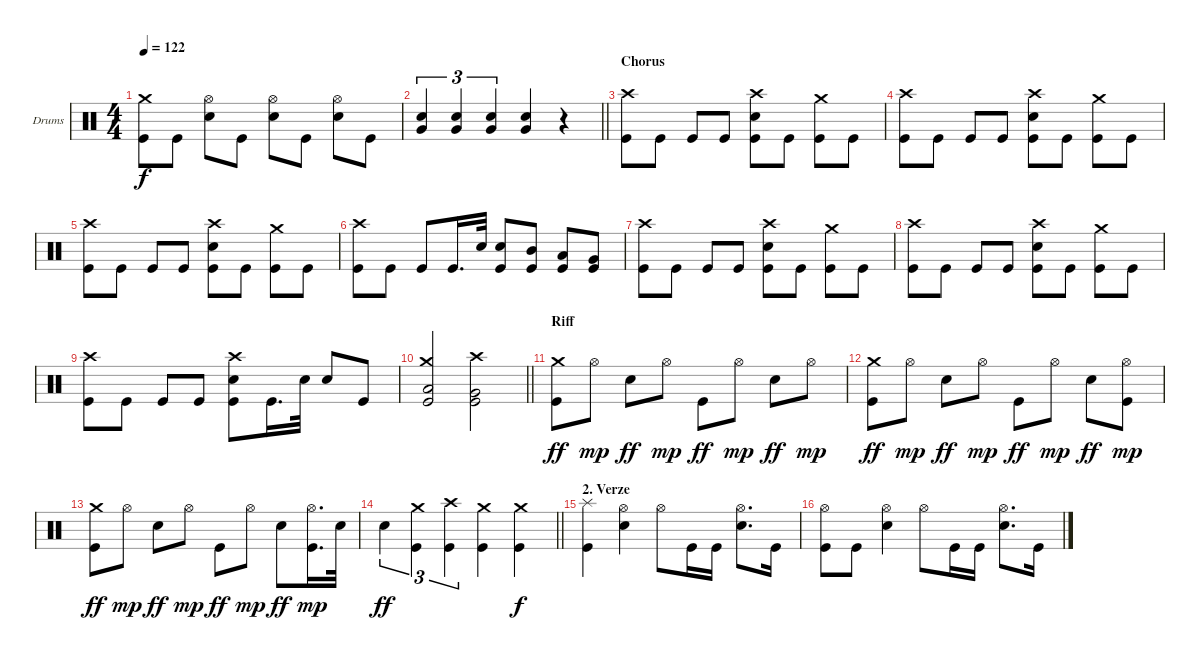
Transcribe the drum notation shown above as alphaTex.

\bracketExtendMode groupsimilarinstruments
\firstSystemTrackNameOrientation horizontal
\otherSystemsTrackNameOrientation horizontal
\track ("Brent Fitz" "Drums") {instrument percussion}
\staff {score}
\articulation defaults
\ts (4 4)
\tempo 122
\clef neutral
\ks c
("Kick (hit)" "Crash medium (hit)").8{dy f} "Kick (hit)".8 ("Snare (hit) 2" "Hi-Hat (open)").8 "Kick (hit)".8 ("Snare (hit) 2" "Hi-Hat (open)").8 "Kick (hit)".8 ("Snare (hit) 2" "Hi-Hat (open)").8 "Kick (hit)".8 |
\barLineRight lightlight
("Snare (hit) 2" "Very Low Tom (hit)").4{tu (3 2)} ("Snare (hit) 2" "Very Low Tom (hit)").4{tu (3 2)} ("Snare (hit) 2" "Very Low Tom (hit)").4{tu (3 2)} ("Snare (hit) 2" "Very Low Tom (hit)").4 r.4 |
\section ("" "Chorus")
("Kick (hit)" "Crash high (hit)").8 "Kick (hit)".8 "Kick (hit)".8 "Kick (hit)".8 ("Snare (hit) 2" "Crash high (hit)" "Kick (hit)").8 "Kick (hit)".8 ("Kick (hit)" "Crash medium (hit)").8 "Kick (hit)".8 |
("Kick (hit)" "Crash high (hit)").8 "Kick (hit)".8 "Kick (hit)".8 "Kick (hit)".8 ("Snare (hit) 2" "Crash high (hit)" "Kick (hit)").8 "Kick (hit)".8 ("Kick (hit)" "Crash medium (hit)").8 "Kick (hit)".8 |
("Kick (hit)" "Crash high (hit)").8 "Kick (hit)".8 "Kick (hit)".8 "Kick (hit)".8 ("Snare (hit) 2" "Crash high (hit)" "Kick (hit)").8 "Kick (hit)".8 ("Kick (hit)" "Crash medium (hit)").8 "Kick (hit)".8 |
("Kick (hit)" "Crash high (hit)").8 "Kick (hit)".8 "Kick (hit)".8 "Kick (hit)".16{d} "Snare (hit) 2".32 ("Snare (hit) 2" "Kick (hit)").8 ("Mid Tom (hit)" "Kick (hit)").8 ("Low Tom (hit)" "Kick (hit)").8 ("Very Low Tom (hit)" "Kick (hit)").8 |
("Kick (hit)" "Crash high (hit)").8 "Kick (hit)".8 "Kick (hit)".8 "Kick (hit)".8 ("Snare (hit) 2" "Crash high (hit)" "Kick (hit)").8 "Kick (hit)".8 ("Kick (hit)" "Crash medium (hit)").8 "Kick (hit)".8 |
("Kick (hit)" "Crash high (hit)").8 "Kick (hit)".8 "Kick (hit)".8 "Kick (hit)".8 ("Snare (hit) 2" "Crash high (hit)" "Kick (hit)").8 "Kick (hit)".8 ("Kick (hit)" "Crash medium (hit)").8 "Kick (hit)".8 |
("Kick (hit)" "Crash high (hit)").8 "Kick (hit)".8 "Kick (hit)".8 "Kick (hit)".8 ("Snare (hit) 2" "Crash high (hit)" "Kick (hit)").8 "Kick (hit)".16{d} "Snare (hit) 2".32 "Snare (hit) 2".8 "Kick (hit)".8 |
\barLineRight lightlight
("Low Tom (hit)" "Crash medium (hit)" "Kick (hit)").2 ("Very Low Tom (hit)" "Kick (hit)" "Crash high (hit)").2 |
\section ("" "Riff")
("Kick (hit)" "Crash medium (hit)").8{dy ff} "Hi-Hat (open)".8{dy mp} "Snare (hit) 2".8{dy ff} "Hi-Hat (open)".8{dy mp} "Kick (hit)".8{dy ff} "Hi-Hat (open)".8{dy mp} "Snare (hit) 2".8{dy ff} "Hi-Hat (open)".8{dy mp} |
("Kick (hit)" "Crash medium (hit)").8{dy ff} "Hi-Hat (open)".8{dy mp} "Snare (hit) 2".8{dy ff} "Hi-Hat (open)".8{dy mp} "Kick (hit)".8{dy ff} "Hi-Hat (open)".8{dy mp} "Snare (hit) 2".8{dy ff} ("Hi-Hat (open)" "Kick (hit)").8{dy mp} |
("Kick (hit)" "Crash medium (hit)").8{dy ff} "Hi-Hat (open)".8{dy mp} "Snare (hit) 2".8{dy ff} "Hi-Hat (open)".8{dy mp} "Kick (hit)".8{dy ff} "Hi-Hat (open)".8{dy mp} "Snare (hit) 2".8{dy ff} ("Hi-Hat (open)" "Kick (hit)").16{d dy mp} "Snare (hit) 2".32 |
\barLineRight lightlight "Snare (hit) 2".4{tu (3 2) dy ff}
("Kick (hit)" "Crash medium (hit)").4{tu (3 2)} ("Kick (hit)" "Crash high (hit)").4{tu (3 2)} ("Kick (hit)" "Crash medium (hit)").4 ("Kick (hit)" "Crash medium (hit)").4{dy f} |
\section ("" "2. Verze")
("Kick (hit)" "Splash (hit)").4 ("Snare (hit) 2" "Hi-Hat (open)").4 "Hi-Hat (open)".8 "Kick (hit)".16 "Kick (hit)".16 ("Snare (hit) 2" "Hi-Hat (open)").8{d} "Kick (hit)".16 |
("Kick (hit)" "Hi-Hat (open)").8 "Kick (hit)".8 ("Snare (hit) 2" "Hi-Hat (open)").4 "Hi-Hat (open)".8 "Kick (hit)".16 "Kick (hit)".16 ("Snare (hit) 2" "Hi-Hat (open)").8{d} "Kick (hit)".16
